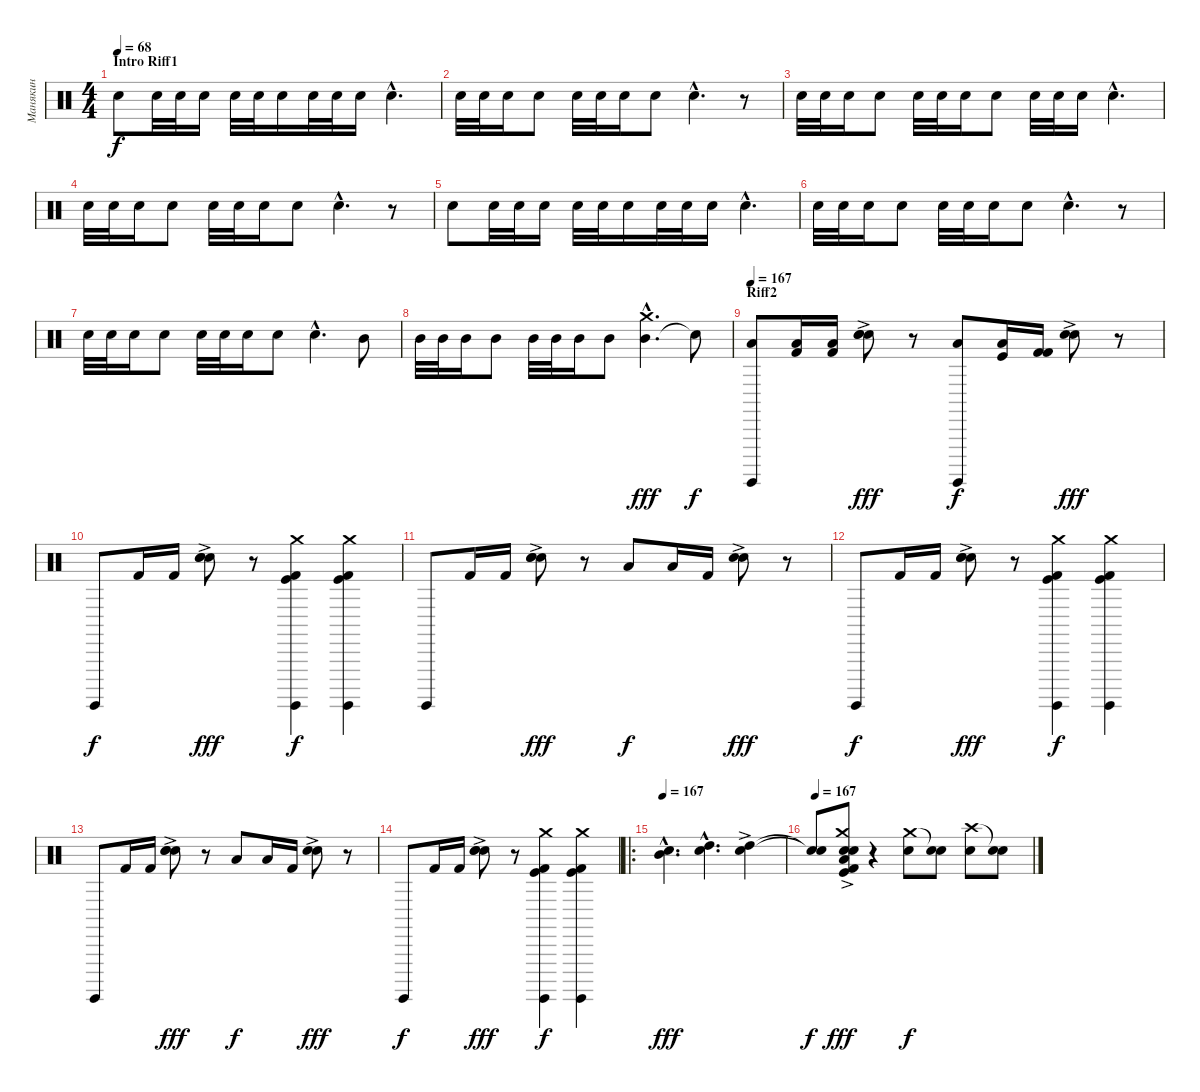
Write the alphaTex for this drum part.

\track ("Манякин" "Манякин") {instrument percussion}
\staff {score}
\articulation defaults
\ts (4 4)
\section ("" "Intro Riff1")
\tempo 68
\clef neutral
\ks c "Electric Snare (hit)".8{dy f} "Electric Snare (hit)".32 "Electric Snare (hit)".32 "Electric Snare (hit)".16 "Electric Snare (hit)".32 "Electric Snare (hit)".32 "Electric Snare (hit)".16 "Electric Snare (hit)".32 "Electric Snare (hit)".32 "Electric Snare (hit)".16 "Electric Snare (hit)"{tr (40 32) hac}.4{d}
|
"Electric Snare (hit)".32 "Electric Snare (hit)".32 "Electric Snare (hit)".16 "Electric Snare (hit)".8 "Electric Snare (hit)".32 "Electric Snare (hit)".32 "Electric Snare (hit)".16 "Electric Snare (hit)".8 "Electric Snare (hit)"{tr (40 32) hac}.4{d} r.8 |
"Electric Snare (hit)".32 "Electric Snare (hit)".32 "Electric Snare (hit)".16 "Electric Snare (hit)".8 "Electric Snare (hit)".32 "Electric Snare (hit)".32 "Electric Snare (hit)".16 "Electric Snare (hit)".8 "Electric Snare (hit)".32 "Electric Snare (hit)".32 "Electric Snare (hit)".16 "Electric Snare (hit)"{tr (40 32) hac}.4{d} |
"Electric Snare (hit)".32 "Electric Snare (hit)".32 "Electric Snare (hit)".16 "Electric Snare (hit)".8 "Electric Snare (hit)".32 "Electric Snare (hit)".32 "Electric Snare (hit)".16 "Electric Snare (hit)".8 "Electric Snare (hit)"{tr (40 32) hac}.4{d} r.8 |
"Electric Snare (hit)".8 "Electric Snare (hit)".32 "Electric Snare (hit)".32 "Electric Snare (hit)".16 "Electric Snare (hit)".32 "Electric Snare (hit)".32 "Electric Snare (hit)".16 "Electric Snare (hit)".32 "Electric Snare (hit)".32 "Electric Snare (hit)".16 "Electric Snare (hit)"{tr (40 32) hac}.4{d} |
"Electric Snare (hit)".32 "Electric Snare (hit)".32 "Electric Snare (hit)".16 "Electric Snare (hit)".8 "Electric Snare (hit)".32 "Electric Snare (hit)".32 "Electric Snare (hit)".16 "Electric Snare (hit)".8 "Electric Snare (hit)"{tr (40 32) hac}.4{d} r.8 |
"Electric Snare (hit)".32 "Electric Snare (hit)".32 "Electric Snare (hit)".16 "Electric Snare (hit)".8 "Electric Snare (hit)".32 "Electric Snare (hit)".32 "Electric Snare (hit)".16 "Electric Snare (hit)".8 "Electric Snare (hit)"{tr (40 32) hac}.4{d} "Mid Tom (hit)"{tr (47 16)}.8 |
"Mid Tom (hit)".32 "Mid Tom (hit)".32 "Mid Tom (hit)".16 "Mid Tom (hit)".8 "Mid Tom (hit)".32 "Mid Tom (hit)".32 "Mid Tom (hit)".16 "Mid Tom (hit)".8 ("Mid Tom (hit)"{tr (47 32) hac} "Crash medium (hit)"{hac}).4{d dy fff} "Snare (hit)"{t}.8{dy f} |
\section ("" "Riff2")
\tempo 167
("Surdo (hit)" "Low Tom (hit)").8{volume 14} ("Kick (hit) 2" "Low Tom (hit)").16 ("Kick (hit) 2" "Low Tom (hit)").16 ("Electric Snare (hit)"{ac} "Snare (hit) 2" "Electric Snare (hit)").8{dy fff} r.8 ("Low Tom (hit)" "Surdo (hit)").8{dy f} ("Low Tom (hit)" "Kick (hit)").16 ("Kick (hit) 2" "Kick (hit) 2").16 ("Electric Snare (hit)"{ac} "Snare (hit) 2").8{dy fff} r.8 |
"Surdo (hit)".8{dy f} "Kick (hit) 2".16 "Kick (hit) 2".16 ("Electric Snare (hit)"{ac} "Snare (hit) 2" "Electric Snare (hit)").8{dy fff} r.8 ("Kick (hit)" "Crash medium (hit)" "Kick (hit) 2" "Surdo (hit)").4{dy f} ("Kick (hit)" "Crash medium (hit)" "Kick (hit) 2" "Surdo (hit)").4 |
"Surdo (hit)".8 "Kick (hit) 2".16 "Kick (hit) 2".16 ("Electric Snare (hit)"{ac} "Snare (hit) 2" "Electric Snare (hit)").8{dy fff} r.8 "Low Tom (hit)".8{dy f} "Low Tom (hit)".16 "Kick (hit) 2".16 ("Electric Snare (hit)"{ac} "Snare (hit) 2").8{dy fff} r.8 |
"Surdo (hit)".8{dy f} "Kick (hit) 2".16 "Kick (hit) 2".16 ("Electric Snare (hit)"{ac} "Snare (hit) 2" "Electric Snare (hit)").8{dy fff} r.8 ("Kick (hit)" "Crash medium (hit)" "Kick (hit) 2" "Surdo (hit)").4{dy f} ("Kick (hit)" "Crash medium (hit)" "Kick (hit) 2" "Surdo (hit)").4 |
"Surdo (hit)".8 "Kick (hit) 2".16 "Kick (hit) 2".16 ("Electric Snare (hit)"{ac} "Snare (hit) 2" "Electric Snare (hit)").8{dy fff} r.8 "Low Tom (hit)".8{dy f} "Low Tom (hit)".16 "Kick (hit) 2".16 ("Electric Snare (hit)"{ac} "Snare (hit) 2").8{dy fff} r.8 |
"Surdo (hit)".8{dy f} "Kick (hit) 2".16 "Kick (hit) 2".16 ("Electric Snare (hit)"{ac} "Snare (hit) 2" "Electric Snare (hit)").8{dy fff} r.8 ("Kick (hit)" "Crash medium (hit)" "Kick (hit) 2" "Surdo (hit)").4{dy f} ("Kick (hit)" "Crash medium (hit)" "Kick (hit) 2" "Surdo (hit)").4 |
\ro
\tempo 167
("Mid Tom (hit)"{hac} "Electric Snare (hit)"{hac}).4{d dy fff} ("High Tom (hit)"{hac} "Electric Snare (hit)"{hac}).4{d} ("High Tom (hit)" "Electric Snare (hit)"{ac}).4 |
\tempo 167
("Snare (hit)"{t} "Snare (hit)"{t}).8{dy f} ("Snare (hit) 2" "Electric Snare (hit)"{ac} "Kick (hit) 2" "Kick (hit)" "Low Tom (hit)" "Crash medium (hit)").8{dy fff} r.4 ("Crash medium (hit)" "Electric Snare (hit)").8{dy f} ("Snare (hit)"{t} "Electric Snare (hit)").8 ("Crash high (hit)" "Electric Snare (hit)").8 ("Snare (hit)"{t} "Electric Snare (hit)").8
